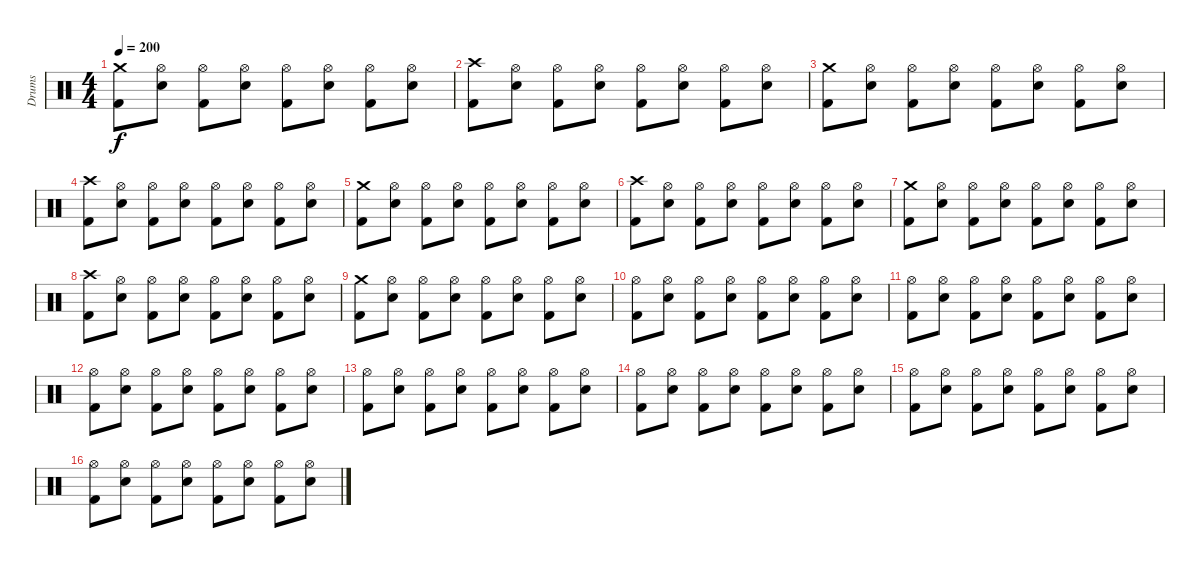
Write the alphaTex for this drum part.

\track ("Drums" "Drums") {instrument percussion}
\staff {score}
\articulation defaults
\ts (4 4)
\tempo 200
\clef neutral
\ks c
("Crash medium (hit)" "Kick (hit) 2").8{dy f} ("Hi-Hat (open)" "Snare (hit) 2").8 ("Hi-Hat (open)" "Kick (hit) 2").8 ("Hi-Hat (open)" "Snare (hit) 2").8 ("Hi-Hat (open)" "Kick (hit) 2").8 ("Hi-Hat (open)" "Snare (hit) 2").8 ("Hi-Hat (open)" "Kick (hit) 2").8 ("Hi-Hat (open)" "Snare (hit) 2").8 |
("Crash high (hit)" "Kick (hit) 2").8 ("Hi-Hat (open)" "Snare (hit) 2").8 ("Hi-Hat (open)" "Kick (hit) 2").8 ("Hi-Hat (open)" "Snare (hit) 2").8 ("Hi-Hat (open)" "Kick (hit) 2").8 ("Hi-Hat (open)" "Snare (hit) 2").8 ("Hi-Hat (open)" "Kick (hit) 2").8 ("Hi-Hat (open)" "Snare (hit) 2").8 |
("Crash medium (hit)" "Kick (hit) 2").8 ("Hi-Hat (open)" "Snare (hit) 2").8 ("Hi-Hat (open)" "Kick (hit) 2").8 ("Hi-Hat (open)" "Snare (hit) 2").8 ("Hi-Hat (open)" "Kick (hit) 2").8 ("Hi-Hat (open)" "Snare (hit) 2").8 ("Hi-Hat (open)" "Kick (hit) 2").8 ("Hi-Hat (open)" "Snare (hit) 2").8 |
("Crash high (hit)" "Kick (hit) 2").8 ("Hi-Hat (open)" "Snare (hit) 2").8 ("Hi-Hat (open)" "Kick (hit) 2").8 ("Hi-Hat (open)" "Snare (hit) 2").8 ("Hi-Hat (open)" "Kick (hit) 2").8 ("Hi-Hat (open)" "Snare (hit) 2").8 ("Hi-Hat (open)" "Kick (hit) 2").8 ("Hi-Hat (open)" "Snare (hit) 2").8 |
("Crash medium (hit)" "Kick (hit) 2").8 ("Hi-Hat (open)" "Snare (hit) 2").8 ("Hi-Hat (open)" "Kick (hit) 2").8 ("Hi-Hat (open)" "Snare (hit) 2").8 ("Hi-Hat (open)" "Kick (hit) 2").8 ("Hi-Hat (open)" "Snare (hit) 2").8 ("Hi-Hat (open)" "Kick (hit) 2").8 ("Hi-Hat (open)" "Snare (hit) 2").8 |
("Crash high (hit)" "Kick (hit) 2").8 ("Hi-Hat (open)" "Snare (hit) 2").8 ("Hi-Hat (open)" "Kick (hit) 2").8 ("Hi-Hat (open)" "Snare (hit) 2").8 ("Hi-Hat (open)" "Kick (hit) 2").8 ("Hi-Hat (open)" "Snare (hit) 2").8 ("Hi-Hat (open)" "Kick (hit) 2").8 ("Hi-Hat (open)" "Snare (hit) 2").8 |
("Crash medium (hit)" "Kick (hit) 2").8 ("Hi-Hat (open)" "Snare (hit) 2").8 ("Hi-Hat (open)" "Kick (hit) 2").8 ("Hi-Hat (open)" "Snare (hit) 2").8 ("Hi-Hat (open)" "Kick (hit) 2").8 ("Hi-Hat (open)" "Snare (hit) 2").8 ("Hi-Hat (open)" "Kick (hit) 2").8 ("Hi-Hat (open)" "Snare (hit) 2").8 |
("Crash high (hit)" "Kick (hit) 2").8 ("Hi-Hat (open)" "Snare (hit) 2").8 ("Hi-Hat (open)" "Kick (hit) 2").8 ("Hi-Hat (open)" "Snare (hit) 2").8 ("Hi-Hat (open)" "Kick (hit) 2").8 ("Hi-Hat (open)" "Snare (hit) 2").8 ("Hi-Hat (open)" "Kick (hit) 2").8 ("Hi-Hat (open)" "Snare (hit) 2").8 |
("Crash medium (hit)" "Kick (hit) 2").8 ("Hi-Hat (open)" "Snare (hit) 2").8 ("Hi-Hat (open)" "Kick (hit) 2").8 ("Hi-Hat (open)" "Snare (hit) 2").8 ("Hi-Hat (open)" "Kick (hit) 2").8 ("Hi-Hat (open)" "Snare (hit) 2").8 ("Hi-Hat (open)" "Kick (hit) 2").8 ("Hi-Hat (open)" "Snare (hit) 2").8 |
("Hi-Hat (open)" "Kick (hit) 2").8 ("Hi-Hat (open)" "Snare (hit) 2").8 ("Hi-Hat (open)" "Kick (hit) 2").8 ("Hi-Hat (open)" "Snare (hit) 2").8 ("Hi-Hat (open)" "Kick (hit) 2").8 ("Hi-Hat (open)" "Snare (hit) 2").8 ("Hi-Hat (open)" "Kick (hit) 2").8 ("Hi-Hat (open)" "Snare (hit) 2").8 |
("Hi-Hat (open)" "Kick (hit) 2").8 ("Hi-Hat (open)" "Snare (hit) 2").8 ("Hi-Hat (open)" "Kick (hit) 2").8 ("Hi-Hat (open)" "Snare (hit) 2").8 ("Hi-Hat (open)" "Kick (hit) 2").8 ("Hi-Hat (open)" "Snare (hit) 2").8 ("Hi-Hat (open)" "Kick (hit) 2").8 ("Hi-Hat (open)" "Snare (hit) 2").8 |
("Hi-Hat (open)" "Kick (hit) 2").8 ("Hi-Hat (open)" "Snare (hit) 2").8 ("Hi-Hat (open)" "Kick (hit) 2").8 ("Hi-Hat (open)" "Snare (hit) 2").8 ("Hi-Hat (open)" "Kick (hit) 2").8 ("Hi-Hat (open)" "Snare (hit) 2").8 ("Hi-Hat (open)" "Kick (hit) 2").8 ("Hi-Hat (open)" "Snare (hit) 2").8 |
("Hi-Hat (open)" "Kick (hit) 2").8 ("Hi-Hat (open)" "Snare (hit) 2").8 ("Hi-Hat (open)" "Kick (hit) 2").8 ("Hi-Hat (open)" "Snare (hit) 2").8 ("Hi-Hat (open)" "Kick (hit) 2").8 ("Hi-Hat (open)" "Snare (hit) 2").8 ("Hi-Hat (open)" "Kick (hit) 2").8 ("Hi-Hat (open)" "Snare (hit) 2").8 |
("Hi-Hat (open)" "Kick (hit) 2").8 ("Hi-Hat (open)" "Snare (hit) 2").8 ("Hi-Hat (open)" "Kick (hit) 2").8 ("Hi-Hat (open)" "Snare (hit) 2").8 ("Hi-Hat (open)" "Kick (hit) 2").8 ("Hi-Hat (open)" "Snare (hit) 2").8 ("Hi-Hat (open)" "Kick (hit) 2").8 ("Hi-Hat (open)" "Snare (hit) 2").8 |
("Hi-Hat (open)" "Kick (hit) 2").8 ("Hi-Hat (open)" "Snare (hit) 2").8 ("Hi-Hat (open)" "Kick (hit) 2").8 ("Hi-Hat (open)" "Snare (hit) 2").8 ("Hi-Hat (open)" "Kick (hit) 2").8 ("Hi-Hat (open)" "Snare (hit) 2").8 ("Hi-Hat (open)" "Kick (hit) 2").8 ("Hi-Hat (open)" "Snare (hit) 2").8 |
("Hi-Hat (open)" "Kick (hit) 2").8 ("Hi-Hat (open)" "Snare (hit) 2").8 ("Hi-Hat (open)" "Kick (hit) 2").8 ("Hi-Hat (open)" "Snare (hit) 2").8 ("Hi-Hat (open)" "Kick (hit) 2").8 ("Hi-Hat (open)" "Snare (hit) 2").8 ("Hi-Hat (open)" "Kick (hit) 2").8 ("Hi-Hat (open)" "Snare (hit) 2").8
